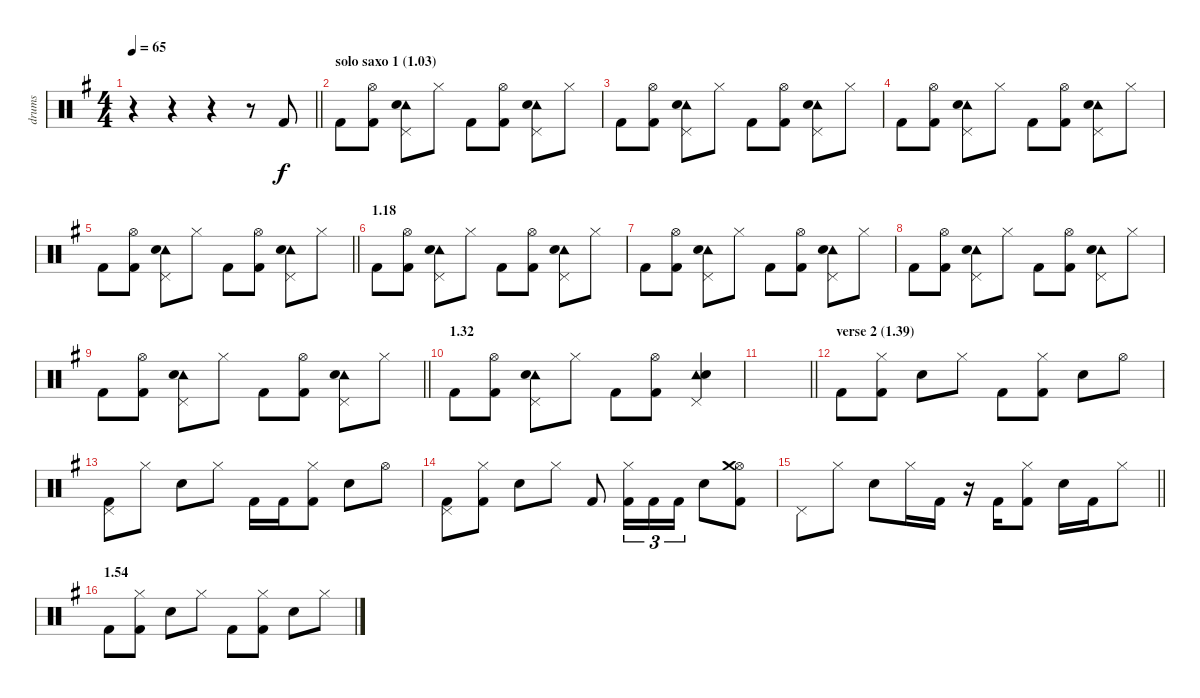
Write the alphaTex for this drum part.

\track ("drums" "drums") {instrument percussion}
\staff {score}
\articulation defaults
\ts (4 4)
\tempo 65
\clef neutral
\barLineRight lightlight
\ks g
r.4{dy f} r.4 r.4 r.8 "Kick (hit) 2".8 |
\section ("" "solo saxo 1 (1.03)")
"Kick (hit) 2".8 ("Hi-Hat (open)" "Kick (hit) 2").8 ("Pedal Hi-Hat (hit)" "Tambourine (hit)" "Electric Snare (hit)").8 "Hi-Hat (closed)".8 "Kick (hit) 2".8 ("Hi-Hat (open)" "Kick (hit) 2").8 ("Pedal Hi-Hat (hit)" "Tambourine (hit)" "Electric Snare (hit)").8 "Hi-Hat (closed)".8 |
"Kick (hit) 2".8 ("Hi-Hat (open)" "Kick (hit) 2").8 ("Pedal Hi-Hat (hit)" "Tambourine (hit)" "Electric Snare (hit)").8 "Hi-Hat (closed)".8 "Kick (hit) 2".8 ("Hi-Hat (open)" "Kick (hit) 2").8 ("Pedal Hi-Hat (hit)" "Tambourine (hit)" "Electric Snare (hit)").8 "Hi-Hat (closed)".8 |
"Kick (hit) 2".8 ("Hi-Hat (open)" "Kick (hit) 2").8 ("Pedal Hi-Hat (hit)" "Tambourine (hit)" "Electric Snare (hit)").8 "Hi-Hat (closed)".8 "Kick (hit) 2".8 ("Hi-Hat (open)" "Kick (hit) 2").8 ("Pedal Hi-Hat (hit)" "Tambourine (hit)" "Electric Snare (hit)").8 "Hi-Hat (closed)".8 |
\barLineRight lightlight "Kick (hit) 2".8
("Hi-Hat (open)" "Kick (hit) 2").8 ("Pedal Hi-Hat (hit)" "Tambourine (hit)" "Electric Snare (hit)").8 "Hi-Hat (closed)".8 "Kick (hit) 2".8 ("Hi-Hat (open)" "Kick (hit) 2").8 ("Pedal Hi-Hat (hit)" "Tambourine (hit)" "Electric Snare (hit)").8 "Hi-Hat (closed)".8 |
\section ("" "1.18")
"Kick (hit) 2".8 ("Hi-Hat (open)" "Kick (hit) 2").8 ("Pedal Hi-Hat (hit)" "Tambourine (hit)" "Electric Snare (hit)").8 "Hi-Hat (closed)".8 "Kick (hit) 2".8 ("Hi-Hat (open)" "Kick (hit) 2").8 ("Pedal Hi-Hat (hit)" "Tambourine (hit)" "Electric Snare (hit)").8 "Hi-Hat (closed)".8 |
"Kick (hit) 2".8 ("Hi-Hat (open)" "Kick (hit) 2").8 ("Pedal Hi-Hat (hit)" "Tambourine (hit)" "Electric Snare (hit)").8 "Hi-Hat (closed)".8 "Kick (hit) 2".8 ("Hi-Hat (open)" "Kick (hit) 2").8 ("Pedal Hi-Hat (hit)" "Tambourine (hit)" "Electric Snare (hit)").8 "Hi-Hat (closed)".8 |
"Kick (hit) 2".8 ("Hi-Hat (open)" "Kick (hit) 2").8 ("Pedal Hi-Hat (hit)" "Tambourine (hit)" "Electric Snare (hit)").8 "Hi-Hat (closed)".8 "Kick (hit) 2".8 ("Hi-Hat (open)" "Kick (hit) 2").8 ("Pedal Hi-Hat (hit)" "Tambourine (hit)" "Electric Snare (hit)").8 "Hi-Hat (closed)".8 |
\barLineRight lightlight "Kick (hit) 2".8
("Hi-Hat (open)" "Kick (hit) 2").8 ("Pedal Hi-Hat (hit)" "Tambourine (hit)" "Electric Snare (hit)").8 "Hi-Hat (closed)".8 "Kick (hit) 2".8 ("Hi-Hat (open)" "Kick (hit) 2").8 ("Pedal Hi-Hat (hit)" "Tambourine (hit)" "Electric Snare (hit)").8 "Hi-Hat (closed)".8 |
\section ("" "1.32")
"Kick (hit) 2".8 ("Hi-Hat (open)" "Kick (hit) 2").8 ("Pedal Hi-Hat (hit)" "Tambourine (hit)" "Electric Snare (hit)").8 "Hi-Hat (closed)".8 "Kick (hit) 2".8 ("Hi-Hat (open)" "Kick (hit) 2").8 ("Pedal Hi-Hat (hit)" "Tambourine (hit)" "Electric Snare (hit)").4 |
\barLineRight lightlight
|
\section ("" "verse 2 (1.39)")
"Kick (hit) 2".8 ("Hi-Hat (closed)" "Kick (hit) 2").8 "Electric Snare (hit)".8 "Hi-Hat (closed)".8 "Kick (hit) 2".8 ("Hi-Hat (closed)" "Kick (hit) 2").8 "Electric Snare (hit)".8 "Hi-Hat (open)".8 |
("Pedal Hi-Hat (hit)" "Kick (hit) 2").8 "Hi-Hat (closed)".8 "Electric Snare (hit)".8 "Hi-Hat (closed)".8 "Kick (hit) 2".16 "Kick (hit) 2".16 ("Hi-Hat (closed)" "Kick (hit) 2").8 "Electric Snare (hit)".8 "Hi-Hat (open)".8 |
("Pedal Hi-Hat (hit)" "Kick (hit) 2").8 ("Hi-Hat (closed)" "Kick (hit) 2").8 "Electric Snare (hit)".8 "Hi-Hat (closed)".8 "Kick (hit) 2".8 ("Hi-Hat (closed)" "Kick (hit) 2").16{tu (3 2)} "Kick (hit) 2".16{tu (3 2)} "Kick (hit) 2".16{tu (3 2)} "Electric Snare (hit)".8 ("Hi-Hat (open)" "Crash medium (hit)" "Kick (hit) 2").8 |
\barLineRight lightlight "Pedal Hi-Hat (hit)".8 "Hi-Hat (closed)".8 "Electric Snare (hit)".8 "Hi-Hat (closed)".16 "Kick (hit) 2".16
r.16 "Kick (hit) 2".16 ("Hi-Hat (closed)" "Kick (hit) 2").8 "Electric Snare (hit)".16 "Kick (hit) 2".16 "Hi-Hat (closed)".8 |
\section ("" "1.54")
"Kick (hit) 2".8 ("Hi-Hat (closed)" "Kick (hit) 2").8 "Electric Snare (hit)".8 "Hi-Hat (closed)".8 "Kick (hit) 2".8 ("Hi-Hat (closed)" "Kick (hit) 2").8 "Electric Snare (hit)".8 "Hi-Hat (closed)".8
